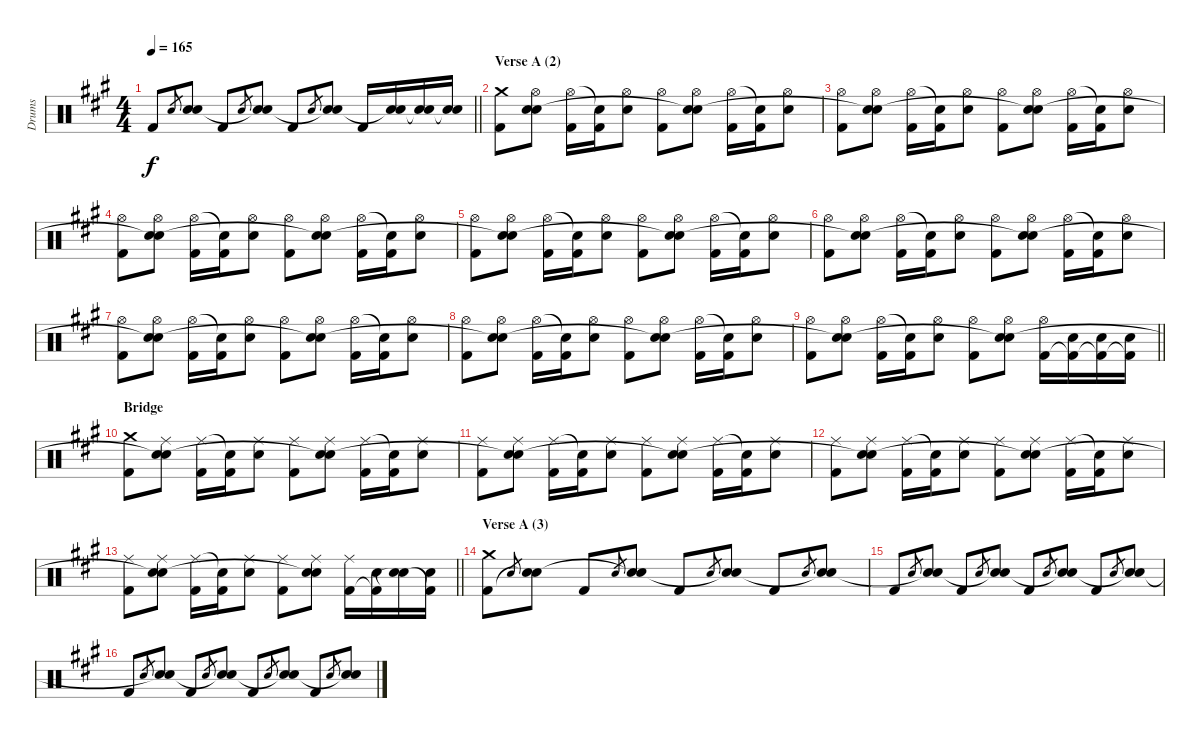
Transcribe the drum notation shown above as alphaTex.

\track ("Drums" "Drums") {instrument percussion}
\staff {score}
\articulation defaults
\ts (4 4)
\tempo 165
\clef neutral
\barLineRight lightlight
\ks f#minor "Kick (hit) 2".8{dy f} "Electric Snare (hit)".8{gr}
("Electric Snare (hit)" "Snare (hit)"{t}).8 "Kick (hit) 2".8 "Electric Snare (hit)".8{gr} ("Electric Snare (hit)" "Snare (hit)"{t}).8 "Kick (hit) 2".8 "Electric Snare (hit)".8{gr} ("Electric Snare (hit)" "Snare (hit)"{t}).8 "Kick (hit) 2".16 ("Electric Snare (hit)" "Snare (hit)"{t}).16 ("Electric Snare (hit)" "Snare (hit)"{t}).16 ("Electric Snare (hit)" "Snare (hit)"{t}).16 |
\section ("" "Verse A (2)")
("Crash medium (hit)" "Kick (hit) 2").8 ("Hi-Hat (open)" "Electric Snare (hit)" "Snare (hit)").8 ("Hi-Hat (open)" "Kick (hit) 2").16 ("Snare (hit)"{t} "Kick (hit) 2").16 ("Hi-Hat (open)" "Electric Snare (hit)").8 ("Hi-Hat (open)" "Kick (hit) 2").8 ("Hi-Hat (open)" "Electric Snare (hit)" "Snare (hit)"{t}).8 ("Hi-Hat (open)" "Kick (hit) 2").16 ("Snare (hit)"{t} "Kick (hit) 2").16 ("Hi-Hat (open)" "Electric Snare (hit)").8 |
("Hi-Hat (open)" "Kick (hit) 2").8 ("Hi-Hat (open)" "Electric Snare (hit)" "Snare (hit)"{t}).8 ("Hi-Hat (open)" "Kick (hit) 2").16 ("Snare (hit)"{t} "Kick (hit) 2").16 ("Hi-Hat (open)" "Electric Snare (hit)").8 ("Hi-Hat (open)" "Kick (hit) 2").8 ("Hi-Hat (open)" "Electric Snare (hit)" "Snare (hit)"{t}).8 ("Hi-Hat (open)" "Kick (hit) 2").16 ("Snare (hit)"{t} "Kick (hit) 2").16 ("Hi-Hat (open)" "Electric Snare (hit)").8 |
("Hi-Hat (open)" "Kick (hit) 2").8 ("Hi-Hat (open)" "Electric Snare (hit)" "Snare (hit)"{t}).8 ("Hi-Hat (open)" "Kick (hit) 2").16 ("Snare (hit)"{t} "Kick (hit) 2").16 ("Hi-Hat (open)" "Electric Snare (hit)").8 ("Hi-Hat (open)" "Kick (hit) 2").8 ("Hi-Hat (open)" "Electric Snare (hit)" "Snare (hit)"{t}).8 ("Hi-Hat (open)" "Kick (hit) 2").16 ("Snare (hit)"{t} "Kick (hit) 2").16 ("Hi-Hat (open)" "Electric Snare (hit)").8 |
("Hi-Hat (open)" "Kick (hit) 2").8 ("Hi-Hat (open)" "Electric Snare (hit)" "Snare (hit)"{t}).8 ("Hi-Hat (open)" "Kick (hit) 2").16 ("Snare (hit)"{t} "Kick (hit) 2").16 ("Hi-Hat (open)" "Electric Snare (hit)").8 ("Hi-Hat (open)" "Kick (hit) 2").8 ("Hi-Hat (open)" "Electric Snare (hit)" "Snare (hit)"{t}).8 ("Hi-Hat (open)" "Kick (hit) 2").16 ("Snare (hit)"{t} "Kick (hit) 2").16 ("Hi-Hat (open)" "Electric Snare (hit)").8 |
("Hi-Hat (open)" "Kick (hit) 2").8 ("Hi-Hat (open)" "Electric Snare (hit)" "Snare (hit)"{t}).8 ("Hi-Hat (open)" "Kick (hit) 2").16 ("Snare (hit)"{t} "Kick (hit) 2").16 ("Hi-Hat (open)" "Electric Snare (hit)").8 ("Hi-Hat (open)" "Kick (hit) 2").8 ("Hi-Hat (open)" "Electric Snare (hit)" "Snare (hit)"{t}).8 ("Hi-Hat (open)" "Kick (hit) 2").16 ("Snare (hit)"{t} "Kick (hit) 2").16 ("Hi-Hat (open)" "Electric Snare (hit)").8 |
("Hi-Hat (open)" "Kick (hit) 2").8 ("Hi-Hat (open)" "Electric Snare (hit)" "Snare (hit)"{t}).8 ("Hi-Hat (open)" "Kick (hit) 2").16 ("Snare (hit)"{t} "Kick (hit) 2").16 ("Hi-Hat (open)" "Electric Snare (hit)").8 ("Hi-Hat (open)" "Kick (hit) 2").8 ("Hi-Hat (open)" "Electric Snare (hit)" "Snare (hit)"{t}).8 ("Hi-Hat (open)" "Kick (hit) 2").16 ("Snare (hit)"{t} "Kick (hit) 2").16 ("Hi-Hat (open)" "Electric Snare (hit)").8 |
("Hi-Hat (open)" "Kick (hit) 2").8 ("Hi-Hat (open)" "Electric Snare (hit)" "Snare (hit)"{t}).8 ("Hi-Hat (open)" "Kick (hit) 2").16 ("Snare (hit)"{t} "Kick (hit) 2").16 ("Hi-Hat (open)" "Electric Snare (hit)").8 ("Hi-Hat (open)" "Kick (hit) 2").8 ("Hi-Hat (open)" "Electric Snare (hit)" "Snare (hit)"{t}).8 ("Hi-Hat (open)" "Kick (hit) 2").16 ("Snare (hit)"{t} "Kick (hit) 2").16 ("Hi-Hat (open)" "Electric Snare (hit)").8 |
\barLineRight lightlight
("Hi-Hat (open)" "Kick (hit) 2").8 ("Hi-Hat (open)" "Electric Snare (hit)" "Snare (hit)"{t}).8 ("Hi-Hat (open)" "Kick (hit) 2").16 ("Snare (hit)"{t} "Kick (hit) 2").16 ("Hi-Hat (open)" "Electric Snare (hit)").8 ("Hi-Hat (open)" "Kick (hit) 2").8 ("Hi-Hat (open)" "Electric Snare (hit)" "Snare (hit)"{t}).8 ("Hi-Hat (open)" "Kick (hit) 2").16 ("Electric Snare (hit)" "Kick (hit) 2"{t}).16 ("Electric Snare (hit)" "Kick (hit) 2"{t}).16 ("Electric Snare (hit)" "Kick (hit) 2"{t}).16 |
\section ("" "Bridge")
("Crash medium (hit)" "Kick (hit) 2").8 ("Ride (middle)" "Electric Snare (hit)" "Snare (hit)"{t}).8 ("Ride (middle)" "Kick (hit) 2").16 ("Snare (hit)"{t} "Kick (hit) 2").16 ("Ride (middle)" "Electric Snare (hit)").8 ("Ride (middle)" "Kick (hit) 2").8 ("Ride (middle)" "Electric Snare (hit)" "Snare (hit)"{t}).8 ("Ride (middle)" "Kick (hit) 2").16 ("Snare (hit)"{t} "Kick (hit) 2").16 ("Ride (middle)" "Electric Snare (hit)").8 |
("Ride (middle)" "Kick (hit) 2").8 ("Ride (middle)" "Electric Snare (hit)" "Snare (hit)"{t}).8 ("Ride (middle)" "Kick (hit) 2").16 ("Snare (hit)"{t} "Kick (hit) 2").16 ("Ride (middle)" "Electric Snare (hit)").8 ("Ride (middle)" "Kick (hit) 2").8 ("Ride (middle)" "Electric Snare (hit)" "Snare (hit)"{t}).8 ("Ride (middle)" "Kick (hit) 2").16 ("Snare (hit)"{t} "Kick (hit) 2").16 ("Ride (middle)" "Electric Snare (hit)").8 |
("Ride (middle)" "Kick (hit) 2").8 ("Ride (middle)" "Electric Snare (hit)" "Snare (hit)"{t}).8 ("Ride (middle)" "Kick (hit) 2").16 ("Snare (hit)"{t} "Kick (hit) 2").16 ("Ride (middle)" "Electric Snare (hit)").8 ("Ride (middle)" "Kick (hit) 2").8 ("Ride (middle)" "Electric Snare (hit)" "Snare (hit)"{t}).8 ("Ride (middle)" "Kick (hit) 2").16 ("Snare (hit)"{t} "Kick (hit) 2").16 ("Ride (middle)" "Electric Snare (hit)").8 |
\barLineRight lightlight
("Ride (middle)" "Kick (hit) 2").8 ("Ride (middle)" "Electric Snare (hit)" "Snare (hit)"{t}).8 ("Ride (middle)" "Kick (hit) 2").16 ("Snare (hit)"{t} "Kick (hit) 2").16 ("Ride (middle)" "Electric Snare (hit)").8 ("Ride (middle)" "Kick (hit) 2").8 ("Ride (middle)" "Electric Snare (hit)" "Snare (hit)"{t}).8 ("Ride (middle)" "Kick (hit) 2").16 ("Electric Snare (hit)" "Kick (hit) 2"{t}).16 ("Electric Snare (hit)" "Snare (hit)"{t}).16 ("Electric Snare (hit)" "Kick (hit) 2"{t}).16 |
\section ("" "Verse A (3)")
("Crash medium (hit)" "Kick (hit) 2").8 "Electric Snare (hit)".8{gr} ("Electric Snare (hit)" "Snare (hit)"{t}).8 "Kick (hit) 2".8 "Electric Snare (hit)".8{gr} ("Electric Snare (hit)" "Snare (hit)"{t}).8 "Kick (hit) 2".8 "Electric Snare (hit)".8{gr} ("Electric Snare (hit)" "Snare (hit)"{t}).8 "Kick (hit) 2".8 "Electric Snare (hit)".8{gr} ("Electric Snare (hit)" "Snare (hit)"{t}).8 |
"Kick (hit) 2".8 "Electric Snare (hit)".8{gr} ("Electric Snare (hit)" "Snare (hit)"{t}).8 "Kick (hit) 2".8 "Electric Snare (hit)".8{gr} ("Electric Snare (hit)" "Snare (hit)"{t}).8 "Kick (hit) 2".8 "Electric Snare (hit)".8{gr} ("Electric Snare (hit)" "Snare (hit)"{t}).8 "Kick (hit) 2".8 "Electric Snare (hit)".8{gr} ("Electric Snare (hit)" "Snare (hit)"{t}).8 |
"Kick (hit) 2".8 "Electric Snare (hit)".8{gr} ("Electric Snare (hit)" "Snare (hit)"{t}).8 "Kick (hit) 2".8 "Electric Snare (hit)".8{gr} ("Electric Snare (hit)" "Snare (hit)"{t}).8 "Kick (hit) 2".8 "Electric Snare (hit)".8{gr} ("Electric Snare (hit)" "Snare (hit)"{t}).8 "Kick (hit) 2".8 "Electric Snare (hit)".8{gr} ("Electric Snare (hit)" "Snare (hit)"{t}).8
